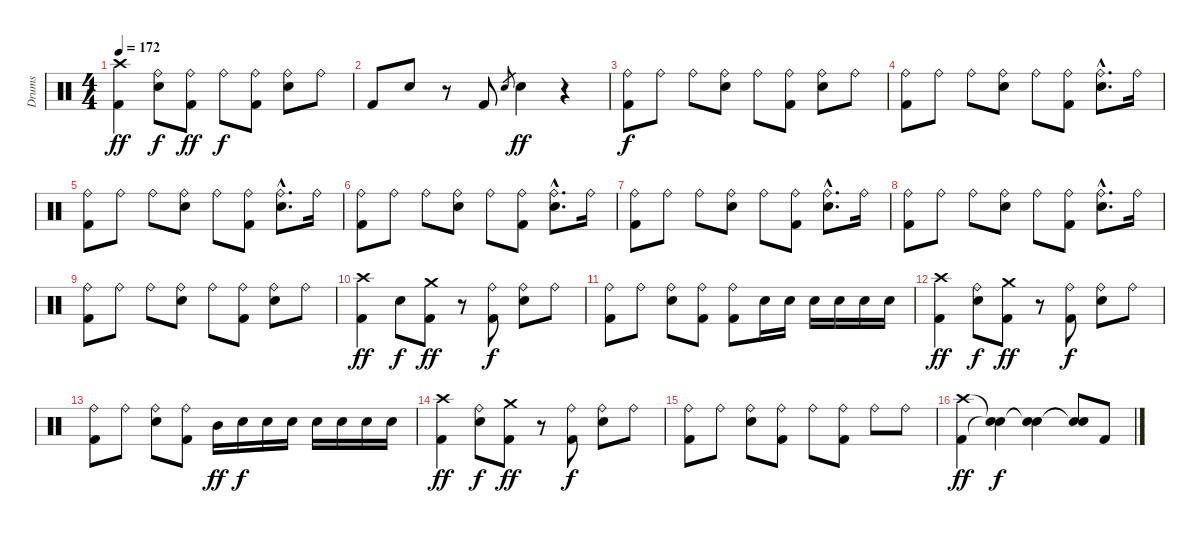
\track ("Drums" "Drums") {instrument percussion}
\staff {score}
\articulation defaults
\ts (4 4)
\tempo 172
\clef neutral
\ks c
("Crash high (hit)" "Kick (hit) 2").4{dy ff} ("Ride (bell)" "Electric Snare (hit)").8{dy f} ("Ride (bell)" "Kick (hit) 2").8{dy ff} "Ride (bell)".8{dy f} ("Ride (bell)" "Kick (hit) 2").8 ("Ride (bell)" "Electric Snare (hit)").8 "Ride (bell)".8 |
"Kick (hit) 2".8 "Electric Snare (hit)".8 r.8 "Kick (hit) 2".8 "Electric Snare (hit)".8{gr} "Electric Snare (hit)".4{dy ff} r.4 |
("Ride (bell)" "Kick (hit) 2").8{dy f} "Ride (bell)".8 "Ride (bell)".8 ("Ride (bell)" "Electric Snare (hit)").8 "Ride (bell)".8 ("Ride (bell)" "Kick (hit) 2").8 ("Ride (bell)" "Electric Snare (hit)").8 "Ride (bell)".8 |
("Ride (bell)" "Kick (hit) 2").8 "Ride (bell)".8 "Ride (bell)".8 ("Ride (bell)" "Electric Snare (hit)").8 "Ride (bell)".8 ("Ride (bell)" "Kick (hit) 2").8 ("Ride (bell)"{hac} "Electric Snare (hit)"{hac}).8{d} "Ride (bell)".16 |
("Ride (bell)" "Kick (hit) 2").8 "Ride (bell)".8 "Ride (bell)".8 ("Ride (bell)" "Electric Snare (hit)").8 "Ride (bell)".8 ("Ride (bell)" "Kick (hit) 2").8 ("Ride (bell)"{hac} "Electric Snare (hit)"{hac}).8{d} "Ride (bell)".16 |
("Ride (bell)" "Kick (hit) 2").8 "Ride (bell)".8 "Ride (bell)".8 ("Ride (bell)" "Electric Snare (hit)").8 "Ride (bell)".8 ("Ride (bell)" "Kick (hit) 2").8 ("Ride (bell)"{hac} "Electric Snare (hit)"{hac}).8{d} "Ride (bell)".16 |
("Ride (bell)" "Kick (hit) 2").8 "Ride (bell)".8 "Ride (bell)".8 ("Ride (bell)" "Electric Snare (hit)").8 "Ride (bell)".8 ("Ride (bell)" "Kick (hit) 2").8 ("Ride (bell)"{hac} "Electric Snare (hit)"{hac}).8{d} "Ride (bell)".16 |
("Ride (bell)" "Kick (hit) 2").8 "Ride (bell)".8 "Ride (bell)".8 ("Ride (bell)" "Electric Snare (hit)").8 "Ride (bell)".8 ("Ride (bell)" "Kick (hit) 2").8 ("Ride (bell)"{hac} "Electric Snare (hit)"{hac}).8{d} "Ride (bell)".16 |
("Ride (bell)" "Kick (hit) 2").8 "Ride (bell)".8 "Ride (bell)".8 ("Ride (bell)" "Electric Snare (hit)").8 "Ride (bell)".8 ("Ride (bell)" "Kick (hit) 2").8 ("Ride (bell)" "Electric Snare (hit)").8 "Ride (bell)".8 |
("Crash high (hit)" "Kick (hit) 2").4{dy ff} "Electric Snare (hit)".8{dy f} ("Crash medium (hit)" "Kick (hit) 2").8{dy ff} r.8 ("Ride (bell)" "Kick (hit) 2").8{dy f} ("Ride (bell)" "Electric Snare (hit)").8 "Ride (bell)".8 |
("Ride (bell)" "Kick (hit) 2").8 "Ride (bell)".8 ("Ride (bell)" "Electric Snare (hit)").8 ("Ride (bell)" "Kick (hit) 2").8 ("Ride (bell)" "Kick (hit) 2").8 "Electric Snare (hit)".16 "Electric Snare (hit)".16 "Electric Snare (hit)".16 "Electric Snare (hit)".16 "Electric Snare (hit)".16 "Electric Snare (hit)".16 |
("Crash high (hit)" "Kick (hit) 2").4{dy ff} ("Ride (bell)" "Electric Snare (hit)").8{dy f} ("Crash medium (hit)" "Kick (hit) 2").8{dy ff} r.8 ("Ride (bell)" "Kick (hit) 2").8{dy f} ("Ride (bell)" "Electric Snare (hit)").8 "Ride (bell)".8 |
("Ride (bell)" "Kick (hit) 2").8 "Ride (bell)".8 ("Ride (bell)" "Electric Snare (hit)").8 ("Ride (bell)" "Kick (hit) 2").8 "Mid Tom (hit)".16{dy ff} "Electric Snare (hit)".16{dy f} "Electric Snare (hit)".16 "Electric Snare (hit)".16 "Electric Snare (hit)".16 "Electric Snare (hit)".16 "Electric Snare (hit)".16 "Electric Snare (hit)".16 |
("Crash high (hit)" "Kick (hit) 2").4{dy ff} ("Ride (bell)" "Electric Snare (hit)").8{dy f} ("Crash medium (hit)" "Kick (hit) 2").8{dy ff} r.8 ("Ride (bell)" "Kick (hit) 2").8{dy f} ("Ride (bell)" "Electric Snare (hit)").8 "Ride (bell)".8 |
("Ride (bell)" "Kick (hit) 2").8 "Ride (bell)".8 ("Ride (bell)" "Electric Snare (hit)").8 ("Ride (bell)" "Kick (hit) 2").8 "Ride (bell)".8 ("Ride (bell)" "Kick (hit) 2").8 "Ride (bell)".8 "Ride (bell)".8 |
("Crash high (hit)" "Kick (hit) 2").4{dy ff} ("Snare (hit)"{t} "Snare (hit)"{t}).4{dy f} ("Snare (hit)"{t} "Snare (hit)"{t}).4 ("Snare (hit)"{t} "Snare (hit)"{t}).8 "Kick (hit) 2".8
